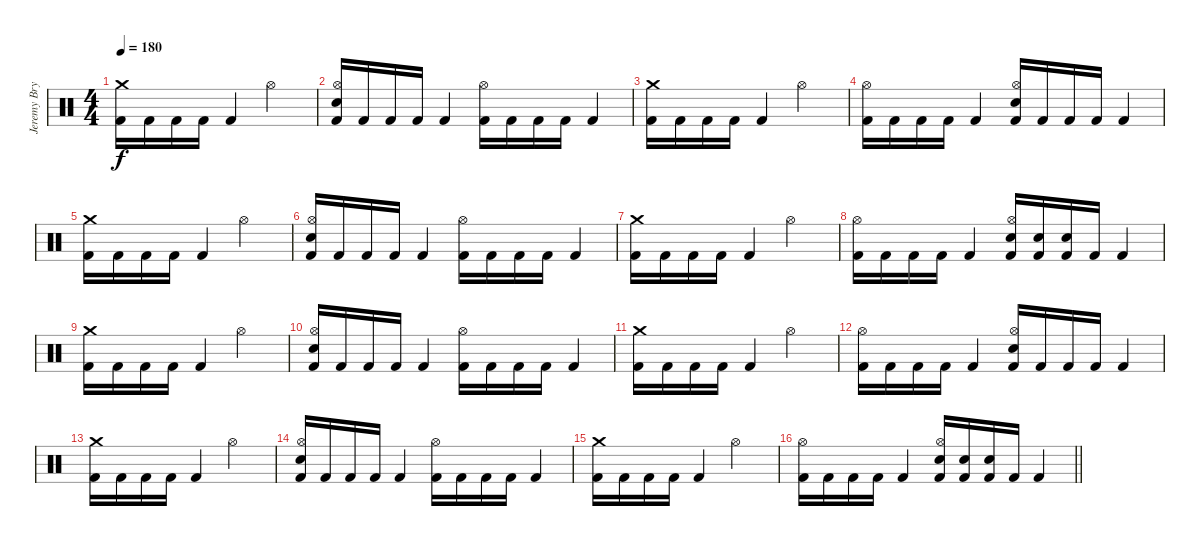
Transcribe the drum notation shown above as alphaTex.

\track ("Jeremy Bryan - Drums" "Jeremy Bry") {instrument percussion}
\staff {score}
\articulation defaults
\ts (4 4)
\tempo 180
\clef neutral
\ks c
("Crash medium (hit)" "Kick (hit) 2").16{dy f} "Kick (hit) 2".16 "Kick (hit) 2".16 "Kick (hit) 2".16 "Kick (hit) 2".4 "Hi-Hat (open)".2 |
("Hi-Hat (open)" "Electric Snare (hit)" "Kick (hit) 2").16 "Kick (hit) 2".16 "Kick (hit) 2".16 "Kick (hit) 2".16 "Kick (hit) 2".4 ("Hi-Hat (open)" "Kick (hit) 2").16 "Kick (hit) 2".16 "Kick (hit) 2".16 "Kick (hit) 2".16 "Kick (hit) 2".4 |
("Crash medium (hit)" "Kick (hit) 2").16 "Kick (hit) 2".16 "Kick (hit) 2".16 "Kick (hit) 2".16 "Kick (hit) 2".4 "Hi-Hat (open)".2 |
("Hi-Hat (open)" "Kick (hit) 2").16 "Kick (hit) 2".16 "Kick (hit) 2".16 "Kick (hit) 2".16 "Kick (hit) 2".4 ("Hi-Hat (open)" "Electric Snare (hit)" "Kick (hit) 2").16 "Kick (hit) 2".16 "Kick (hit) 2".16 "Kick (hit) 2".16 "Kick (hit) 2".4 |
("Crash medium (hit)" "Kick (hit) 2").16 "Kick (hit) 2".16 "Kick (hit) 2".16 "Kick (hit) 2".16 "Kick (hit) 2".4 "Hi-Hat (open)".2 |
("Hi-Hat (open)" "Electric Snare (hit)" "Kick (hit) 2").16 "Kick (hit) 2".16 "Kick (hit) 2".16 "Kick (hit) 2".16 "Kick (hit) 2".4 ("Hi-Hat (open)" "Kick (hit) 2").16 "Kick (hit) 2".16 "Kick (hit) 2".16 "Kick (hit) 2".16 "Kick (hit) 2".4 |
("Crash medium (hit)" "Kick (hit) 2").16 "Kick (hit) 2".16 "Kick (hit) 2".16 "Kick (hit) 2".16 "Kick (hit) 2".4 "Hi-Hat (open)".2 |
("Hi-Hat (open)" "Kick (hit) 2").16 "Kick (hit) 2".16 "Kick (hit) 2".16 "Kick (hit) 2".16 "Kick (hit) 2".4 ("Hi-Hat (open)" "Electric Snare (hit)" "Kick (hit) 2").16 ("Electric Snare (hit)" "Kick (hit) 2").16 ("Electric Snare (hit)" "Kick (hit) 2").16 "Kick (hit) 2".16 "Kick (hit) 2".4 |
("Crash medium (hit)" "Kick (hit) 2").16 "Kick (hit) 2".16 "Kick (hit) 2".16 "Kick (hit) 2".16 "Kick (hit) 2".4 "Hi-Hat (open)".2 |
("Hi-Hat (open)" "Electric Snare (hit)" "Kick (hit) 2").16 "Kick (hit) 2".16 "Kick (hit) 2".16 "Kick (hit) 2".16 "Kick (hit) 2".4 ("Hi-Hat (open)" "Kick (hit) 2").16 "Kick (hit) 2".16 "Kick (hit) 2".16 "Kick (hit) 2".16 "Kick (hit) 2".4 |
("Crash medium (hit)" "Kick (hit) 2").16 "Kick (hit) 2".16 "Kick (hit) 2".16 "Kick (hit) 2".16 "Kick (hit) 2".4 "Hi-Hat (open)".2 |
("Hi-Hat (open)" "Kick (hit) 2").16 "Kick (hit) 2".16 "Kick (hit) 2".16 "Kick (hit) 2".16 "Kick (hit) 2".4 ("Hi-Hat (open)" "Electric Snare (hit)" "Kick (hit) 2").16 "Kick (hit) 2".16 "Kick (hit) 2".16 "Kick (hit) 2".16 "Kick (hit) 2".4 |
("Crash medium (hit)" "Kick (hit) 2").16 "Kick (hit) 2".16 "Kick (hit) 2".16 "Kick (hit) 2".16 "Kick (hit) 2".4 "Hi-Hat (open)".2 |
("Hi-Hat (open)" "Electric Snare (hit)" "Kick (hit) 2").16 "Kick (hit) 2".16 "Kick (hit) 2".16 "Kick (hit) 2".16 "Kick (hit) 2".4 ("Hi-Hat (open)" "Kick (hit) 2").16 "Kick (hit) 2".16 "Kick (hit) 2".16 "Kick (hit) 2".16 "Kick (hit) 2".4 |
("Crash medium (hit)" "Kick (hit) 2").16 "Kick (hit) 2".16 "Kick (hit) 2".16 "Kick (hit) 2".16 "Kick (hit) 2".4 "Hi-Hat (open)".2 |
\barLineRight lightlight
("Hi-Hat (open)" "Kick (hit) 2").16 "Kick (hit) 2".16 "Kick (hit) 2".16 "Kick (hit) 2".16 "Kick (hit) 2".4 ("Hi-Hat (open)" "Electric Snare (hit)" "Kick (hit) 2").16 ("Electric Snare (hit)" "Kick (hit) 2").16 ("Electric Snare (hit)" "Kick (hit) 2").16 "Kick (hit) 2".16 "Kick (hit) 2".4
